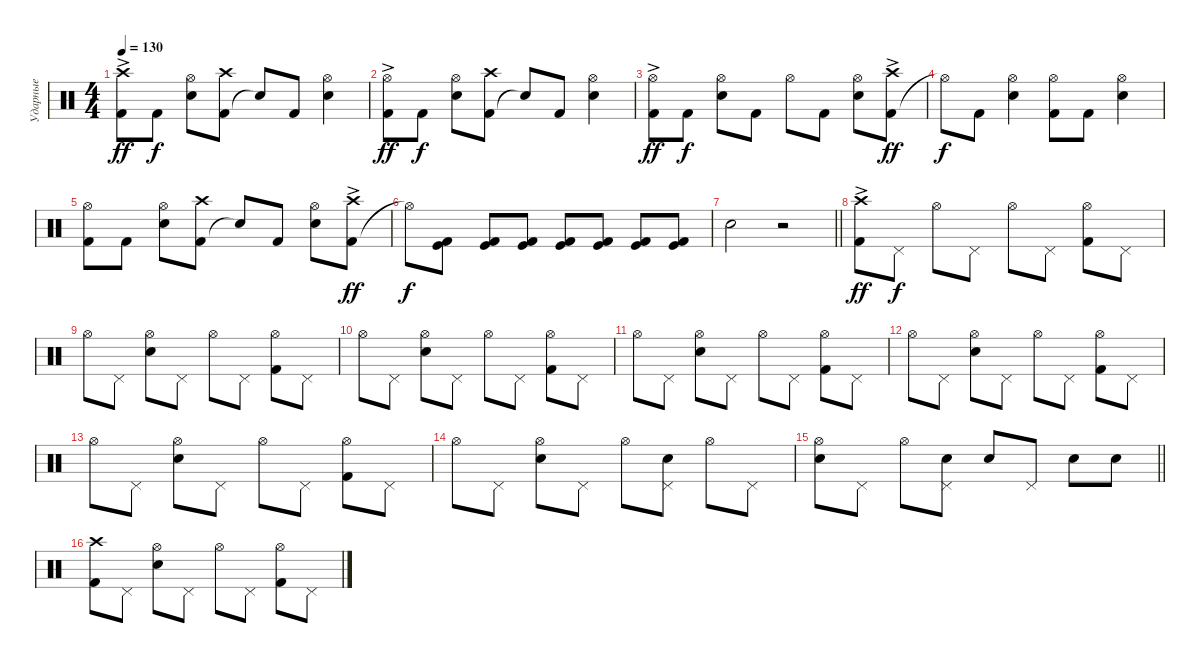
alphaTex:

\track ("Ударные" "Ударные") {instrument percussion}
\staff
\articulation defaults
\ts (4 4)
\tempo 130
\clef neutral
\ks c
("Kick (hit) 2" "Crash high (hit)"{ac}).8{dy ff} "Kick (hit) 2".8{dy f} ("Snare (hit) 2" "Hi-Hat (open)").8 ("Kick (hit) 2" "Crash high (hit)").8 "Snare (hit)"{t}.8 "Kick (hit) 2".8 ("Snare (hit) 2" "Hi-Hat (open)").4 |
("Kick (hit) 2" "Hi-Hat (open)"{ac}).8{dy ff} "Kick (hit) 2".8{dy f} ("Snare (hit) 2" "Hi-Hat (open)").8 ("Kick (hit) 2" "Crash high (hit)").8 "Snare (hit)"{t}.8 "Kick (hit) 2".8 ("Snare (hit) 2" "Hi-Hat (open)").4 |
("Kick (hit) 2" "Hi-Hat (open)"{ac}).8{dy ff} "Kick (hit) 2".8{dy f} ("Snare (hit) 2" "Hi-Hat (open)").8 "Kick (hit) 2".8 "Hi-Hat (open)".8 "Kick (hit) 2".8 ("Snare (hit) 2" "Hi-Hat (open)").8 ("Kick (hit) 2" "Crash high (hit)"{ac}).8{dy ff} |
"Hi-Hat (open)"{t}.8{dy f} "Kick (hit) 2".8 ("Snare (hit) 2" "Hi-Hat (open)").4 ("Kick (hit) 2" "Hi-Hat (open)").8 "Kick (hit) 2".8 ("Snare (hit) 2" "Hi-Hat (open)").4 |
("Kick (hit) 2" "Hi-Hat (open)").8 "Kick (hit) 2".8 ("Snare (hit) 2" "Hi-Hat (open)").8 ("Kick (hit) 2" "Crash high (hit)").8 "Snare (hit)"{t}.8 "Kick (hit) 2".8 ("Snare (hit) 2" "Hi-Hat (open)").8 ("Kick (hit) 2" "Crash high (hit)"{ac}).8{dy ff} |
"Hi-Hat (open)"{t}.8{dy f} ("Kick (hit) 2" "Kick (hit)").8 ("Kick (hit) 2" "Kick (hit)").8 ("Kick (hit) 2" "Kick (hit)").8 ("Kick (hit) 2" "Kick (hit)").8 ("Kick (hit) 2" "Kick (hit)").8 ("Kick (hit) 2" "Kick (hit)").8 ("Kick (hit) 2" "Kick (hit)").8 |
\barLineRight lightlight "Snare (hit) 2".2
r.2 |
("Kick (hit) 2" "Crash high (hit)"{ac}).8{dy ff} "Pedal Hi-Hat (hit)".8{dy f} "Hi-Hat (open)".8 "Pedal Hi-Hat (hit)".8 "Hi-Hat (open)".8 "Pedal Hi-Hat (hit)".8 ("Kick (hit) 2" "Hi-Hat (open)").8 "Pedal Hi-Hat (hit)".8 |
"Hi-Hat (open)".8 "Pedal Hi-Hat (hit)".8 ("Snare (hit) 2" "Hi-Hat (open)").8 "Pedal Hi-Hat (hit)".8 "Hi-Hat (open)".8 "Pedal Hi-Hat (hit)".8 ("Kick (hit) 2" "Hi-Hat (open)").8 "Pedal Hi-Hat (hit)".8 |
"Hi-Hat (open)".8 "Pedal Hi-Hat (hit)".8 ("Snare (hit) 2" "Hi-Hat (open)").8 "Pedal Hi-Hat (hit)".8 "Hi-Hat (open)".8 "Pedal Hi-Hat (hit)".8 ("Kick (hit) 2" "Hi-Hat (open)").8 "Pedal Hi-Hat (hit)".8 |
"Hi-Hat (open)".8 "Pedal Hi-Hat (hit)".8 ("Snare (hit) 2" "Hi-Hat (open)").8 "Pedal Hi-Hat (hit)".8 "Hi-Hat (open)".8 "Pedal Hi-Hat (hit)".8 ("Kick (hit) 2" "Hi-Hat (open)").8 "Pedal Hi-Hat (hit)".8 |
"Hi-Hat (open)".8 "Pedal Hi-Hat (hit)".8 ("Snare (hit) 2" "Hi-Hat (open)").8 "Pedal Hi-Hat (hit)".8 "Hi-Hat (open)".8 "Pedal Hi-Hat (hit)".8 ("Kick (hit) 2" "Hi-Hat (open)").8 "Pedal Hi-Hat (hit)".8 |
"Hi-Hat (open)".8 "Pedal Hi-Hat (hit)".8 ("Snare (hit) 2" "Hi-Hat (open)").8 "Pedal Hi-Hat (hit)".8 "Hi-Hat (open)".8 "Pedal Hi-Hat (hit)".8 ("Kick (hit) 2" "Hi-Hat (open)").8 "Pedal Hi-Hat (hit)".8 |
"Hi-Hat (open)".8 "Pedal Hi-Hat (hit)".8 ("Snare (hit) 2" "Hi-Hat (open)").8 "Pedal Hi-Hat (hit)".8 "Hi-Hat (open)".8 ("Snare (hit) 2" "Pedal Hi-Hat (hit)").8 "Hi-Hat (open)".8 "Pedal Hi-Hat (hit)".8 |
\barLineRight lightlight
("Snare (hit) 2" "Hi-Hat (open)").8 "Pedal Hi-Hat (hit)".8 "Hi-Hat (open)".8 ("Snare (hit) 2" "Pedal Hi-Hat (hit)").8 "Snare (hit) 2".8 "Pedal Hi-Hat (hit)".8 "Snare (hit) 2".8 "Snare (hit) 2".8 |
("Kick (hit) 2" "Crash high (hit)").8 "Pedal Hi-Hat (hit)".8 ("Snare (hit) 2" "Hi-Hat (open)").8 "Pedal Hi-Hat (hit)".8 "Hi-Hat (open)".8 "Pedal Hi-Hat (hit)".8 ("Kick (hit) 2" "Hi-Hat (open)").8 "Pedal Hi-Hat (hit)".8
